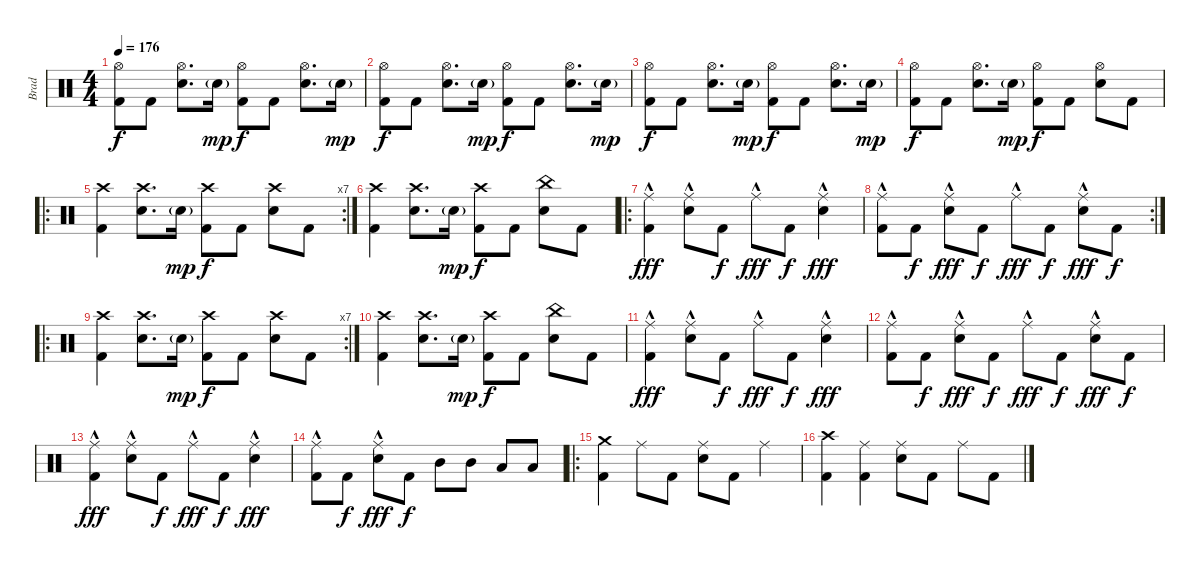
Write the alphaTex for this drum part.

\track ("Brad" "Brad") {instrument percussion}
\staff {score}
\articulation defaults
\ts (4 4)
\tempo 176
\clef neutral
\ks c
("Hi-Hat (open)" "Kick (hit) 2").8{dy f} "Kick (hit) 2".8 ("Hi-Hat (open)" "Electric Snare (hit)").8{d} "Electric Snare (hit)"{g}.16{dy mp} ("Hi-Hat (open)" "Kick (hit) 2").8{dy f} "Kick (hit) 2".8 ("Hi-Hat (open)" "Electric Snare (hit)").8{d} "Electric Snare (hit)"{g}.16{dy mp} |
("Hi-Hat (open)" "Kick (hit) 2").8{dy f} "Kick (hit) 2".8 ("Hi-Hat (open)" "Electric Snare (hit)").8{d} "Electric Snare (hit)"{g}.16{dy mp} ("Hi-Hat (open)" "Kick (hit) 2").8{dy f} "Kick (hit) 2".8 ("Hi-Hat (open)" "Electric Snare (hit)").8{d} "Electric Snare (hit)"{g}.16{dy mp} |
("Hi-Hat (open)" "Kick (hit) 2").8{dy f} "Kick (hit) 2".8 ("Hi-Hat (open)" "Electric Snare (hit)").8{d} "Electric Snare (hit)"{g}.16{dy mp} ("Hi-Hat (open)" "Kick (hit) 2").8{dy f} "Kick (hit) 2".8 ("Hi-Hat (open)" "Electric Snare (hit)").8{d} "Electric Snare (hit)"{g}.16{dy mp} |
("Hi-Hat (open)" "Kick (hit) 2").8{dy f} "Kick (hit) 2".8 ("Hi-Hat (open)" "Electric Snare (hit)").8{d} "Electric Snare (hit)"{g}.16{dy mp} ("Hi-Hat (open)" "Kick (hit) 2").8{dy f} "Kick (hit) 2".8 ("Hi-Hat (open)" "Electric Snare (hit)").8 "Kick (hit) 2".8 |
\ro
\rc 7
("Crash high (hit)" "Kick (hit) 2").4 ("Crash high (hit)" "Electric Snare (hit)").8{d} "Electric Snare (hit)"{g}.16{dy mp} ("Crash high (hit)" "Kick (hit) 2").8{dy f} "Kick (hit) 2".8 ("Crash high (hit)" "Electric Snare (hit)").8 "Kick (hit) 2".8 |
("Crash high (hit)" "Kick (hit) 2").4 ("Crash high (hit)" "Electric Snare (hit)").8{d} "Electric Snare (hit)"{g}.16{dy mp} ("Crash high (hit)" "Kick (hit) 2").8{dy f} "Kick (hit) 2".8 ("China (hit)" "Electric Snare (hit)").8 "Kick (hit) 2".8 |
\ro
("Ride (middle)"{hac} "Kick (hit) 2").4{dy fff} ("Ride (middle)"{hac} "Electric Snare (hit)").8 "Kick (hit) 2".8{dy f} "Ride (middle)"{hac}.8{dy fff} "Kick (hit) 2".8{dy f} ("Ride (middle)"{hac} "Electric Snare (hit)").4{dy fff} |
\rc 2
("Ride (middle)"{hac} "Kick (hit) 2").8 "Kick (hit) 2".8{dy f} ("Ride (middle)"{hac} "Electric Snare (hit)").8{dy fff} "Kick (hit) 2".8{dy f} "Ride (middle)"{hac}.8{dy fff} "Kick (hit) 2".8{dy f} ("Ride (middle)"{hac} "Electric Snare (hit)").8{dy fff} "Kick (hit) 2".8{dy f} |
\ro
\rc 7
("Crash high (hit)" "Kick (hit) 2").4 ("Crash high (hit)" "Electric Snare (hit)").8{d} "Electric Snare (hit)"{g}.16{dy mp} ("Crash high (hit)" "Kick (hit) 2").8{dy f} "Kick (hit) 2".8 ("Crash high (hit)" "Electric Snare (hit)").8 "Kick (hit) 2".8 |
("Crash high (hit)" "Kick (hit) 2").4 ("Crash high (hit)" "Electric Snare (hit)").8{d} "Electric Snare (hit)"{g}.16{dy mp} ("Crash high (hit)" "Kick (hit) 2").8{dy f} "Kick (hit) 2".8 ("China (hit)" "Electric Snare (hit)").8 "Kick (hit) 2".8 |
("Ride (middle)"{hac} "Kick (hit) 2").4{dy fff} ("Ride (middle)"{hac} "Electric Snare (hit)").8 "Kick (hit) 2".8{dy f} "Ride (middle)"{hac}.8{dy fff} "Kick (hit) 2".8{dy f} ("Ride (middle)"{hac} "Electric Snare (hit)").4{dy fff} |
("Ride (middle)"{hac} "Kick (hit) 2").8 "Kick (hit) 2".8{dy f} ("Ride (middle)"{hac} "Electric Snare (hit)").8{dy fff} "Kick (hit) 2".8{dy f} "Ride (middle)"{hac}.8{dy fff} "Kick (hit) 2".8{dy f} ("Ride (middle)"{hac} "Electric Snare (hit)").8{dy fff} "Kick (hit) 2".8{dy f} |
("Ride (middle)"{hac} "Kick (hit) 2").4{dy fff} ("Ride (middle)"{hac} "Electric Snare (hit)").8 "Kick (hit) 2".8{dy f} "Ride (middle)"{hac}.8{dy fff} "Kick (hit) 2".8{dy f} ("Ride (middle)"{hac} "Electric Snare (hit)").4{dy fff} |
("Ride (middle)"{hac} "Kick (hit) 2").8 "Kick (hit) 2".8{dy f} ("Ride (middle)"{hac} "Electric Snare (hit)").8{dy fff} "Kick (hit) 2".8{dy f} "Mid Tom (hit)".8 "Mid Tom (hit)".8 "Low Tom (hit)".8 "Low Tom (hit)".8 |
\ro
("Crash medium (hit)" "Kick (hit) 2").4 "Ride (middle)".8 "Kick (hit) 2".8 ("Ride (middle)" "Electric Snare (hit)").8 "Kick (hit) 2".8 "Ride (middle)".4 |
("Crash high (hit)" "Kick (hit) 2").4 ("Ride (middle)" "Kick (hit) 2").4 ("Ride (middle)" "Electric Snare (hit)").8 "Kick (hit) 2".8 "Ride (middle)".8 "Kick (hit) 2".8
